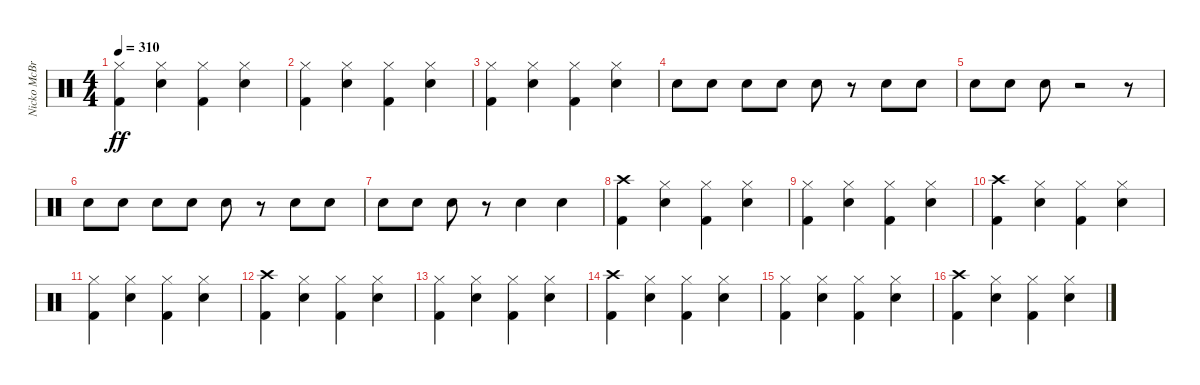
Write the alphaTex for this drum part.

\track ("Nicko McBrain" "Nicko McBr") {instrument percussion}
\staff {score}
\articulation defaults
\ts (4 4)
\tempo 310
\clef neutral
\ks c
("Kick (hit) 2" "Hi-Hat (closed)").4{dy ff} ("Snare (hit) 2" "Hi-Hat (closed)").4 ("Kick (hit) 2" "Hi-Hat (closed)").4 ("Snare (hit) 2" "Hi-Hat (closed)").4 |
("Kick (hit) 2" "Hi-Hat (closed)").4 ("Snare (hit) 2" "Hi-Hat (closed)").4 ("Kick (hit) 2" "Hi-Hat (closed)").4 ("Snare (hit) 2" "Hi-Hat (closed)").4 |
("Kick (hit) 2" "Hi-Hat (closed)").4 ("Snare (hit) 2" "Hi-Hat (closed)").4 ("Kick (hit) 2" "Hi-Hat (closed)").4 ("Snare (hit) 2" "Hi-Hat (closed)").4 |
"Snare (hit) 2".8 "Snare (hit) 2".8 "Snare (hit) 2".8 "Snare (hit) 2".8 "Snare (hit) 2".8 r.8 "Snare (hit) 2".8 "Snare (hit) 2".8 |
"Snare (hit) 2".8 "Snare (hit) 2".8 "Snare (hit) 2".8 r.2 r.8 |
"Snare (hit) 2".8 "Snare (hit) 2".8 "Snare (hit) 2".8 "Snare (hit) 2".8 "Snare (hit) 2".8 r.8 "Snare (hit) 2".8 "Snare (hit) 2".8 |
"Snare (hit) 2".8 "Snare (hit) 2".8 "Snare (hit) 2".8 r.8 "Snare (hit) 2".4 "Snare (hit) 2".4 |
("Kick (hit) 2" "Crash high (hit)").4 ("Snare (hit) 2" "Hi-Hat (closed)").4 ("Kick (hit) 2" "Hi-Hat (closed)").4 ("Snare (hit) 2" "Hi-Hat (closed)").4 |
("Kick (hit) 2" "Hi-Hat (closed)").4 ("Snare (hit) 2" "Hi-Hat (closed)").4 ("Kick (hit) 2" "Hi-Hat (closed)").4 ("Snare (hit) 2" "Hi-Hat (closed)").4 |
("Kick (hit) 2" "Crash high (hit)").4 ("Snare (hit) 2" "Hi-Hat (closed)").4 ("Kick (hit) 2" "Hi-Hat (closed)").4 ("Snare (hit) 2" "Hi-Hat (closed)").4 |
("Kick (hit) 2" "Hi-Hat (closed)").4 ("Snare (hit) 2" "Hi-Hat (closed)").4 ("Kick (hit) 2" "Hi-Hat (closed)").4 ("Snare (hit) 2" "Hi-Hat (closed)").4 |
("Kick (hit) 2" "Crash high (hit)").4 ("Snare (hit) 2" "Hi-Hat (closed)").4 ("Kick (hit) 2" "Hi-Hat (closed)").4 ("Snare (hit) 2" "Hi-Hat (closed)").4 |
("Kick (hit) 2" "Hi-Hat (closed)").4 ("Snare (hit) 2" "Hi-Hat (closed)").4 ("Kick (hit) 2" "Hi-Hat (closed)").4 ("Snare (hit) 2" "Hi-Hat (closed)").4 |
("Kick (hit) 2" "Crash high (hit)").4 ("Snare (hit) 2" "Hi-Hat (closed)").4 ("Kick (hit) 2" "Hi-Hat (closed)").4 ("Snare (hit) 2" "Hi-Hat (closed)").4 |
("Kick (hit) 2" "Hi-Hat (closed)").4 ("Snare (hit) 2" "Hi-Hat (closed)").4 ("Kick (hit) 2" "Hi-Hat (closed)").4 ("Snare (hit) 2" "Hi-Hat (closed)").4 |
("Kick (hit) 2" "Crash high (hit)").4 ("Snare (hit) 2" "Hi-Hat (closed)").4 ("Kick (hit) 2" "Hi-Hat (closed)").4 ("Snare (hit) 2" "Hi-Hat (closed)").4
